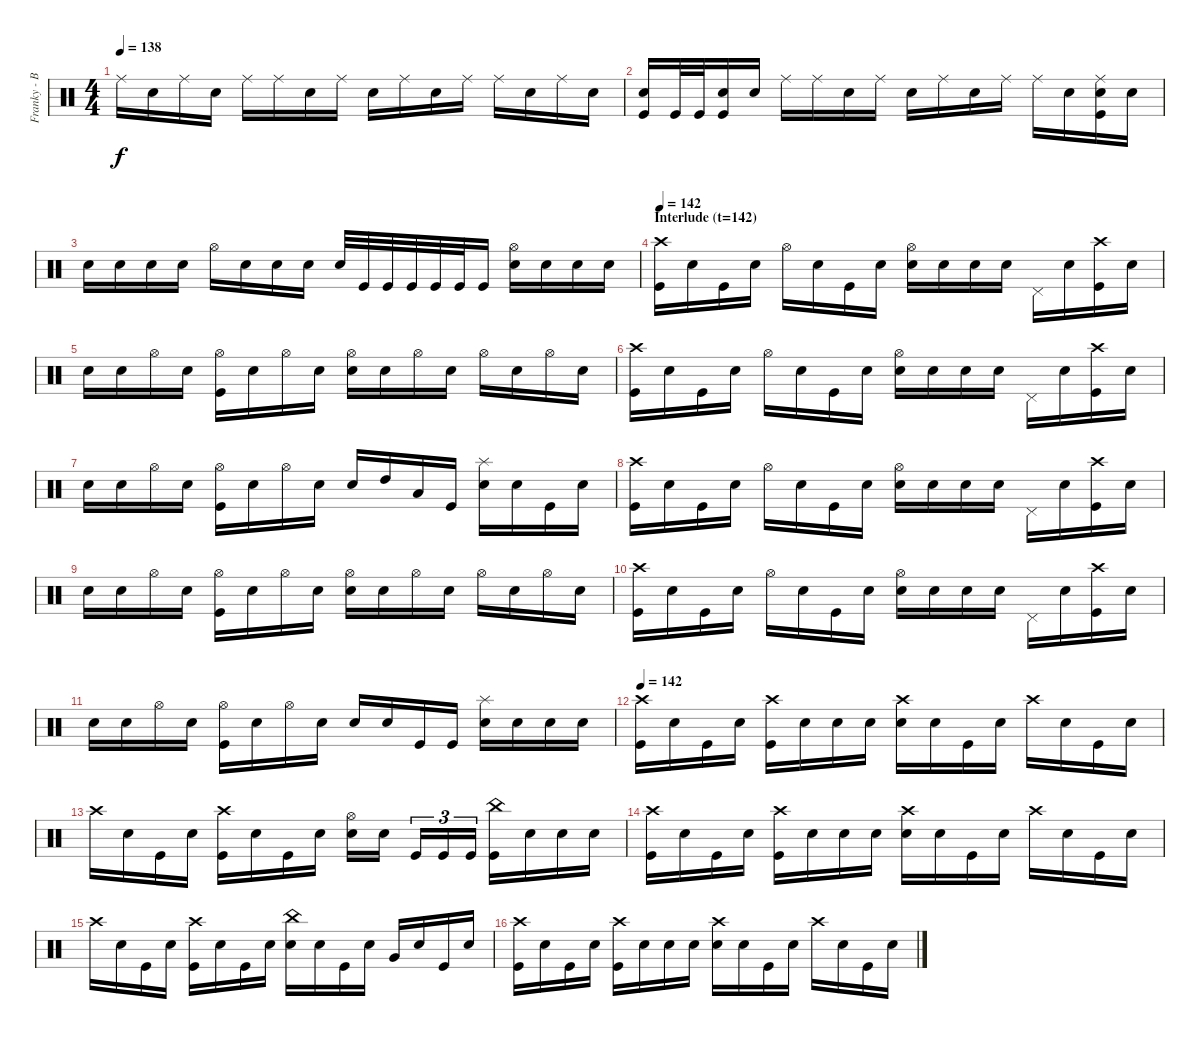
\track ("Franky - Batterie" "Franky - B") {instrument percussion}
\staff {score}
\articulation defaults
\ts (4 4)
\tempo 138
\clef neutral
\ks c "Ride (middle)".16{dy f} "Snare (hit)".16 "Ride (middle)".16 "Snare (hit)".16 "Ride (middle)".16 "Ride (middle)".16 "Snare (hit)".16 "Ride (middle)".16 "Snare (hit)".16 "Ride (middle)".16 "Snare (hit)".16 "Ride (middle)".16 "Ride (middle)".16 "Snare (hit)".16 "Ride (middle)".16 "Snare (hit)".16
|
("Electric Snare (hit)" "Kick (hit)").16 "Kick (hit)".32 "Kick (hit)".32 ("Electric Snare (hit)" "Kick (hit)").16 "Snare (hit)".16 "Ride (middle)".16 "Ride (middle)".16 "Snare (hit)".16 "Ride (middle)".16 "Snare (hit)".16 "Ride (middle)".16 "Snare (hit)".16 "Ride (middle)".16 "Ride (middle)".16 "Snare (hit)".16 ("Ride (middle)" "Electric Snare (hit)" "Kick (hit)").16 "Snare (hit)".16 |
"Snare (hit)".16 "Snare (hit)".16 "Snare (hit)".16 "Snare (hit)".16 "Hi-Hat (open)".16 "Snare (hit)".16 "Snare (hit)".16 "Snare (hit)".16 "Electric Snare (hit)".32 "Kick (hit)".32 "Kick (hit)".32 "Kick (hit)".32 "Kick (hit)".32 "Kick (hit)".32 "Kick (hit)".16 ("Hi-Hat (open)" "Electric Snare (hit)").16 "Snare (hit)".16 "Snare (hit)".16 "Snare (hit)".16 |
\section ("" "Interlude (t=142)")
\tempo 142
("Crash high (hit)" "Kick (hit)").16{volume 16 balance 8} "Snare (hit)".16 "Kick (hit)".16 "Snare (hit)".16 "Hi-Hat (open)".16 "Snare (hit)".16 "Kick (hit)".16 "Snare (hit)".16 ("Hi-Hat (open)" "Electric Snare (hit)").16 "Snare (hit)".16 "Snare (hit)".16 "Snare (hit)".16 "Pedal Hi-Hat (hit)".16 "Snare (hit)".16 ("Crash high (hit)" "Kick (hit)").16 "Snare (hit)".16 |
"Snare (hit)".16 "Snare (hit)".16 "Hi-Hat (open)".16 "Snare (hit)".16 ("Hi-Hat (open)" "Kick (hit)").16 "Snare (hit)".16 "Hi-Hat (open)".16 "Snare (hit)".16 ("Hi-Hat (open)" "Electric Snare (hit)").16 "Snare (hit)".16 "Hi-Hat (open)".16 "Snare (hit)".16 "Hi-Hat (open)".16 "Snare (hit)".16 "Hi-Hat (open)".16 "Snare (hit)".16 |
("Crash high (hit)" "Kick (hit)").16 "Snare (hit)".16 "Kick (hit)".16 "Snare (hit)".16 "Hi-Hat (open)".16 "Snare (hit)".16 "Kick (hit)".16 "Snare (hit)".16 ("Hi-Hat (open)" "Electric Snare (hit)").16 "Snare (hit)".16 "Snare (hit)".16 "Snare (hit)".16 "Pedal Hi-Hat (hit)".16 "Snare (hit)".16 ("Crash high (hit)" "Kick (hit)").16 "Snare (hit)".16 |
"Snare (hit)".16 "Snare (hit)".16 "Hi-Hat (open)".16 "Snare (hit)".16 ("Hi-Hat (open)" "Kick (hit)").16 "Snare (hit)".16 "Hi-Hat (open)".16 "Snare (hit)".16 "Electric Snare (hit)".16 "High Tom (hit)".16 "Low Tom (hit)".16 "Kick (hit)".16 ("Splash (hit)" "Electric Snare (hit)").16 "Snare (hit)".16 "Kick (hit)".16 "Snare (hit)".16 |
("Crash high (hit)" "Kick (hit)").16 "Snare (hit)".16 "Kick (hit)".16 "Snare (hit)".16 "Hi-Hat (open)".16 "Snare (hit)".16 "Kick (hit)".16 "Snare (hit)".16 ("Hi-Hat (open)" "Electric Snare (hit)").16 "Snare (hit)".16 "Snare (hit)".16 "Snare (hit)".16 "Pedal Hi-Hat (hit)".16 "Snare (hit)".16 ("Crash high (hit)" "Kick (hit)").16 "Snare (hit)".16 |
"Snare (hit)".16 "Snare (hit)".16 "Hi-Hat (open)".16 "Snare (hit)".16 ("Hi-Hat (open)" "Kick (hit)").16 "Snare (hit)".16 "Hi-Hat (open)".16 "Snare (hit)".16 ("Hi-Hat (open)" "Electric Snare (hit)").16 "Snare (hit)".16 "Hi-Hat (open)".16 "Snare (hit)".16 "Hi-Hat (open)".16 "Snare (hit)".16 "Hi-Hat (open)".16 "Snare (hit)".16 |
("Crash high (hit)" "Kick (hit)").16 "Snare (hit)".16 "Kick (hit)".16 "Snare (hit)".16 "Hi-Hat (open)".16 "Snare (hit)".16 "Kick (hit)".16 "Snare (hit)".16 ("Hi-Hat (open)" "Electric Snare (hit)").16 "Snare (hit)".16 "Snare (hit)".16 "Snare (hit)".16 "Pedal Hi-Hat (hit)".16 "Snare (hit)".16 ("Crash high (hit)" "Kick (hit)").16 "Snare (hit)".16 |
"Snare (hit)".16 "Snare (hit)".16 "Hi-Hat (open)".16 "Snare (hit)".16 ("Hi-Hat (open)" "Kick (hit)").16 "Snare (hit)".16 "Hi-Hat (open)".16 "Snare (hit)".16 "Electric Snare (hit)".16 "Electric Snare (hit)".16 "Kick (hit)".16 "Kick (hit)".16 ("Splash (hit)" "Electric Snare (hit)").16 "Snare (hit)".16 "Snare (hit)".16 "Snare (hit)".16 |
\section ("" "")
\tempo 142
("Crash high (hit)" "Kick (hit)").16{volume 16 balance 8} "Snare (hit)".16 "Kick (hit)".16 "Snare (hit)".16 ("Crash high (hit)" "Kick (hit)").16 "Snare (hit)".16 "Snare (hit)".16 "Snare (hit)".16 ("Crash high (hit)" "Electric Snare (hit)").16 "Snare (hit)".16 "Kick (hit)".16 "Snare (hit)".16 "Crash high (hit)".16 "Snare (hit)".16 "Kick (hit)".16 "Snare (hit)".16 |
"Crash high (hit)".16 "Snare (hit)".16 "Kick (hit)".16 "Snare (hit)".16 ("Crash high (hit)" "Kick (hit)").16 "Snare (hit)".16 "Kick (hit)".16 "Snare (hit)".16 ("Hi-Hat (open)" "Electric Snare (hit)").16 "Snare (hit)".16 "Kick (hit)".16{tu (3 2)} "Kick (hit)".16{tu (3 2)} "Kick (hit)".16{tu (3 2)} ("China (hit)" "Kick (hit)").16 "Snare (hit)".16 "Snare (hit)".16 "Snare (hit)".16 |
("Crash high (hit)" "Kick (hit)").16 "Snare (hit)".16 "Kick (hit)".16 "Snare (hit)".16 ("Crash high (hit)" "Kick (hit)").16 "Snare (hit)".16 "Snare (hit)".16 "Snare (hit)".16 ("Crash high (hit)" "Electric Snare (hit)").16 "Snare (hit)".16 "Kick (hit)".16 "Snare (hit)".16 "Crash high (hit)".16 "Snare (hit)".16 "Kick (hit)".16 "Snare (hit)".16 |
"Crash high (hit)".16 "Snare (hit)".16 "Kick (hit)".16 "Snare (hit)".16 ("Crash high (hit)" "Kick (hit)").16 "Snare (hit)".16 "Kick (hit)".16 "Snare (hit)".16 ("China (hit)" "Electric Snare (hit)").16 "Snare (hit)".16 "Kick (hit)".16 "Snare (hit)".16 "Very Low Tom (hit)".16 "Snare (hit)".16 "Kick (hit)".16 "Snare (hit)".16 |
("Crash high (hit)" "Kick (hit)").16 "Snare (hit)".16 "Kick (hit)".16 "Snare (hit)".16 ("Crash high (hit)" "Kick (hit)").16 "Snare (hit)".16 "Snare (hit)".16 "Snare (hit)".16 ("Crash high (hit)" "Electric Snare (hit)").16 "Snare (hit)".16 "Kick (hit)".16 "Snare (hit)".16 "Crash high (hit)".16 "Snare (hit)".16 "Kick (hit)".16 "Snare (hit)".16
